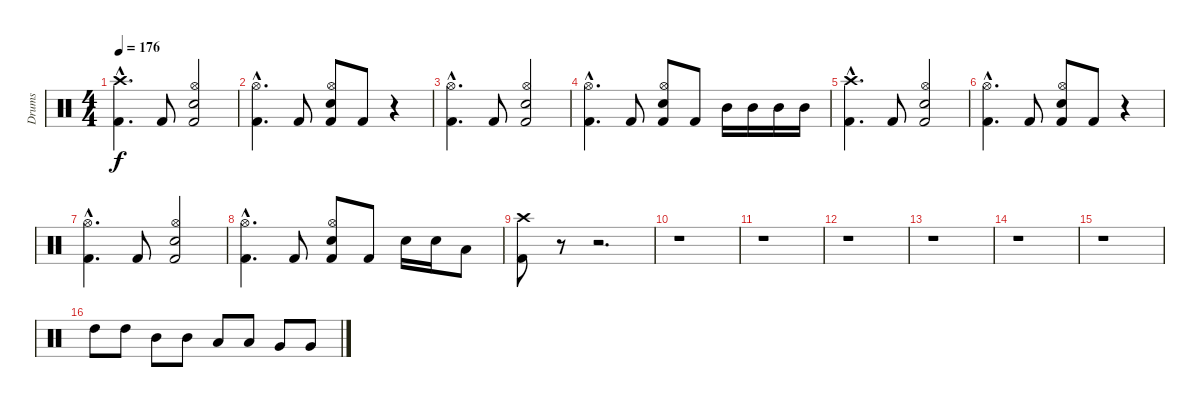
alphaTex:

\track ("Drums" "Drums") {instrument percussion}
\staff {score}
\articulation defaults
\ts (4 4)
\tempo 176
\clef neutral
\ks c
("Crash high (hit)"{hac} "Kick (hit) 2"{hac}).4{d dy f} "Kick (hit) 2".8 ("Hi-Hat (open)" "Electric Snare (hit)" "Kick (hit) 2").2 |
("Hi-Hat (open)"{hac} "Kick (hit) 2"{hac}).4{d} "Kick (hit) 2".8 ("Hi-Hat (open)" "Electric Snare (hit)" "Kick (hit) 2").8 "Kick (hit) 2".8 r.4 |
("Hi-Hat (open)"{hac} "Kick (hit) 2"{hac}).4{d} "Kick (hit) 2".8 ("Hi-Hat (open)" "Electric Snare (hit)" "Kick (hit) 2").2 |
("Hi-Hat (open)"{hac} "Kick (hit) 2"{hac}).4{d} "Kick (hit) 2".8 ("Hi-Hat (open)" "Electric Snare (hit)" "Kick (hit) 2").8 "Kick (hit) 2".8 "Mid Tom (hit)".16 "Mid Tom (hit)".16 "Mid Tom (hit)".16 "Mid Tom (hit)".16 |
("Crash high (hit)"{hac} "Kick (hit) 2"{hac}).4{d} "Kick (hit) 2".8 ("Hi-Hat (open)" "Electric Snare (hit)" "Kick (hit) 2").2 |
("Hi-Hat (open)"{hac} "Kick (hit) 2"{hac}).4{d} "Kick (hit) 2".8 ("Hi-Hat (open)" "Electric Snare (hit)" "Kick (hit) 2").8 "Kick (hit) 2".8 r.4 |
("Hi-Hat (open)"{hac} "Kick (hit) 2"{hac}).4{d} "Kick (hit) 2".8 ("Hi-Hat (open)" "Electric Snare (hit)" "Kick (hit) 2").2 |
("Hi-Hat (open)"{hac} "Kick (hit) 2"{hac}).4{d} "Kick (hit) 2".8 ("Hi-Hat (open)" "Electric Snare (hit)" "Kick (hit) 2").8 "Kick (hit) 2".8 "Electric Snare (hit)".16 "Electric Snare (hit)".16 "Low Tom (hit)".8 |
("Crash high (hit)" "Kick (hit) 2").8 r.8{volume 0} r.2{d} |
r.1 |
r.1 |
r.1 |
r.1 |
r.1 |
r.1 |
"High Tom (hit)".8{volume 13} "High Tom (hit)".8 "Mid Tom (hit)".8 "Mid Tom (hit)".8 "Low Tom (hit)".8 "Low Tom (hit)".8 "Very Low Tom (hit)".8 "Very Low Tom (hit)".8
